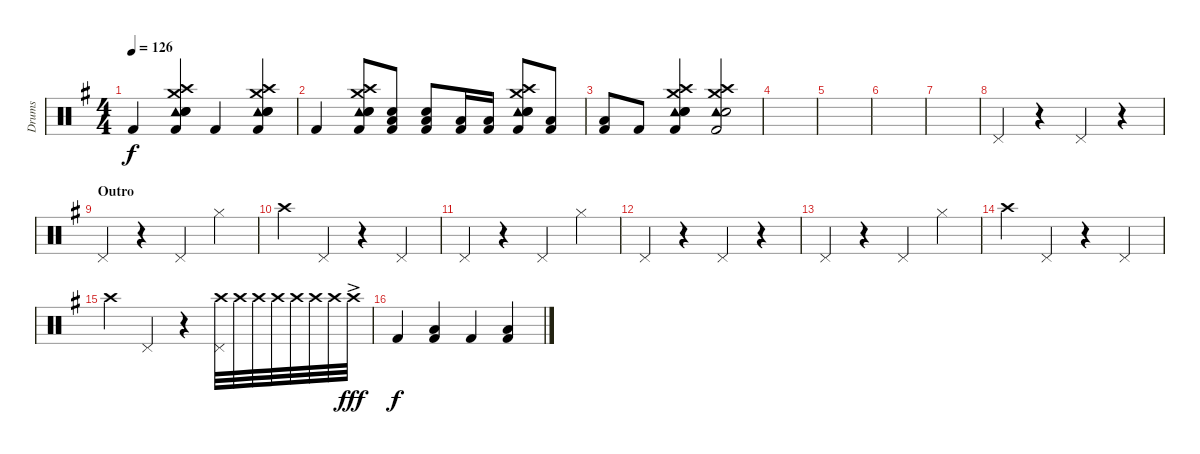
\track ("Drums" "Drums") {instrument percussion}
\staff {score}
\articulation defaults
\ts (4 4)
\tempo 126
\clef neutral
\ks g "Kick (hit) 2".4{dy f}
("Crash medium (hit)" "Crash high (hit)" "Tambourine (hit)" "Hand Clap (hit)" "Snare (hit) 2" "Kick (hit) 2").4 "Kick (hit) 2".4 ("Crash medium (hit)" "Crash high (hit)" "Tambourine (hit)" "Hand Clap (hit)" "Snare (hit) 2" "Kick (hit) 2").4 |
"Kick (hit) 2".4 ("Crash medium (hit)" "Crash high (hit)" "Tambourine (hit)" "Hand Clap (hit)" "Snare (hit) 2" "Kick (hit) 2").8 ("Snare (hit) 2" "Low Floor Tom (hit)" "Kick (hit) 2").8 ("Snare (hit) 2" "Low Floor Tom (hit)" "Kick (hit) 2").8 ("Low Floor Tom (hit)" "Kick (hit) 2").16 ("Low Floor Tom (hit)" "Kick (hit) 2").16 ("Crash medium (hit)" "Crash high (hit)" "Tambourine (hit)" "Hand Clap (hit)" "Snare (hit) 2" "Kick (hit) 2").8 ("Low Floor Tom (hit)" "Kick (hit) 2").8 |
("Low Floor Tom (hit)" "Kick (hit) 2").8 "Kick (hit) 2".8 ("Crash medium (hit)" "Crash high (hit)" "Tambourine (hit)" "Hand Clap (hit)" "Snare (hit) 2" "Kick (hit) 2").4 ("Crash medium (hit)" "Crash high (hit)" "Tambourine (hit)" "Snare (hit) 2" "Kick (hit) 2").2 |
|
|
|
|
"Pedal Hi-Hat (hit)".4 r.4 "Pedal Hi-Hat (hit)".4 r.4 |
\section ("" "Outro")
"Pedal Hi-Hat (hit)".4 r.4 "Pedal Hi-Hat (hit)".4 "Hi-Hat (closed)".4 |
"Crash high (hit)".4 "Pedal Hi-Hat (hit)".4 r.4 "Pedal Hi-Hat (hit)".4 |
"Pedal Hi-Hat (hit)".4 r.4 "Pedal Hi-Hat (hit)".4 "Hi-Hat (closed)".4 |
"Pedal Hi-Hat (hit)".4 r.4 "Pedal Hi-Hat (hit)".4 r.4 |
"Pedal Hi-Hat (hit)".4 r.4 "Pedal Hi-Hat (hit)".4 "Hi-Hat (closed)".4 |
"Crash high (hit)".4 "Pedal Hi-Hat (hit)".4 r.4 "Pedal Hi-Hat (hit)".4 |
"Crash high (hit)".4 "Pedal Hi-Hat (hit)".4 r.4 ("Crash high (hit)" "Pedal Hi-Hat (hit)").32 "Crash high (hit)".32 "Crash high (hit)".32 "Crash high (hit)".32 "Crash high (hit)".32 "Crash high (hit)".32 "Crash high (hit)".32 "Crash high (hit)"{ac}.32{dy fff} |
"Kick (hit) 2".4{dy f} ("Low Floor Tom (hit)" "Kick (hit) 2").4 "Kick (hit) 2".4 ("Low Floor Tom (hit)" "Kick (hit) 2").4
